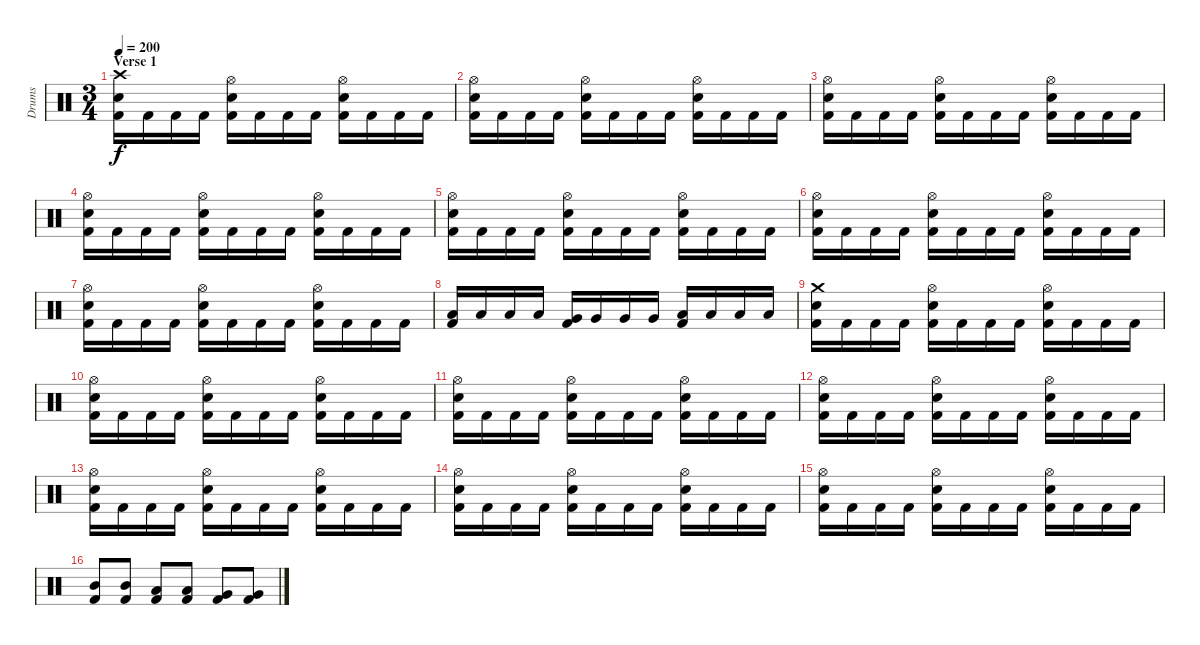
\track ("Drums" "Drums") {instrument percussion}
\staff {score}
\articulation defaults
\ts (3 4)
\section ("" "Verse 1")
\tempo 200
\clef neutral
\ks c
("Crash high (hit)" "Snare (hit) 2" "Kick (hit) 2").16{dy f} "Kick (hit) 2".16 "Kick (hit) 2".16 "Kick (hit) 2".16 ("Hi-Hat (open)" "Snare (hit) 2" "Kick (hit) 2").16 "Kick (hit) 2".16 "Kick (hit) 2".16 "Kick (hit) 2".16 ("Hi-Hat (open)" "Snare (hit) 2" "Kick (hit) 2").16 "Kick (hit) 2".16 "Kick (hit) 2".16 "Kick (hit) 2".16 |
("Hi-Hat (open)" "Snare (hit) 2" "Kick (hit) 2").16 "Kick (hit) 2".16 "Kick (hit) 2".16 "Kick (hit) 2".16 ("Hi-Hat (open)" "Snare (hit) 2" "Kick (hit) 2").16 "Kick (hit) 2".16 "Kick (hit) 2".16 "Kick (hit) 2".16 ("Hi-Hat (open)" "Snare (hit) 2" "Kick (hit) 2").16 "Kick (hit) 2".16 "Kick (hit) 2".16 "Kick (hit) 2".16 |
("Hi-Hat (open)" "Snare (hit) 2" "Kick (hit) 2").16 "Kick (hit) 2".16 "Kick (hit) 2".16 "Kick (hit) 2".16 ("Hi-Hat (open)" "Snare (hit) 2" "Kick (hit) 2").16 "Kick (hit) 2".16 "Kick (hit) 2".16 "Kick (hit) 2".16 ("Hi-Hat (open)" "Snare (hit) 2" "Kick (hit) 2").16 "Kick (hit) 2".16 "Kick (hit) 2".16 "Kick (hit) 2".16 |
("Hi-Hat (open)" "Snare (hit) 2" "Kick (hit) 2").16 "Kick (hit) 2".16 "Kick (hit) 2".16 "Kick (hit) 2".16 ("Hi-Hat (open)" "Snare (hit) 2" "Kick (hit) 2").16 "Kick (hit) 2".16 "Kick (hit) 2".16 "Kick (hit) 2".16 ("Hi-Hat (open)" "Snare (hit) 2" "Kick (hit) 2").16 "Kick (hit) 2".16 "Kick (hit) 2".16 "Kick (hit) 2".16 |
("Hi-Hat (open)" "Snare (hit) 2" "Kick (hit) 2").16 "Kick (hit) 2".16 "Kick (hit) 2".16 "Kick (hit) 2".16 ("Hi-Hat (open)" "Snare (hit) 2" "Kick (hit) 2").16 "Kick (hit) 2".16 "Kick (hit) 2".16 "Kick (hit) 2".16 ("Hi-Hat (open)" "Snare (hit) 2" "Kick (hit) 2").16 "Kick (hit) 2".16 "Kick (hit) 2".16 "Kick (hit) 2".16 |
("Hi-Hat (open)" "Snare (hit) 2" "Kick (hit) 2").16 "Kick (hit) 2".16 "Kick (hit) 2".16 "Kick (hit) 2".16 ("Hi-Hat (open)" "Snare (hit) 2" "Kick (hit) 2").16 "Kick (hit) 2".16 "Kick (hit) 2".16 "Kick (hit) 2".16 ("Hi-Hat (open)" "Snare (hit) 2" "Kick (hit) 2").16 "Kick (hit) 2".16 "Kick (hit) 2".16 "Kick (hit) 2".16 |
("Hi-Hat (open)" "Snare (hit) 2" "Kick (hit) 2").16 "Kick (hit) 2".16 "Kick (hit) 2".16 "Kick (hit) 2".16 ("Hi-Hat (open)" "Snare (hit) 2" "Kick (hit) 2").16 "Kick (hit) 2".16 "Kick (hit) 2".16 "Kick (hit) 2".16 ("Hi-Hat (open)" "Snare (hit) 2" "Kick (hit) 2").16 "Kick (hit) 2".16 "Kick (hit) 2".16 "Kick (hit) 2".16 |
("Low Tom (hit)" "Kick (hit) 2").16 "Low Tom (hit)".16 "Low Tom (hit)".16 "Low Tom (hit)".16 ("Very Low Tom (hit)" "Kick (hit) 2").16 "Very Low Tom (hit)".16 "Very Low Tom (hit)".16 "Very Low Tom (hit)".16 ("Low Floor Tom (hit)" "Kick (hit) 2").16 "Low Floor Tom (hit)".16 "Low Floor Tom (hit)".16 "Low Floor Tom (hit)".16 |
("Crash medium (hit)" "Snare (hit) 2" "Kick (hit) 2").16 "Kick (hit) 2".16 "Kick (hit) 2".16 "Kick (hit) 2".16 ("Hi-Hat (open)" "Snare (hit) 2" "Kick (hit) 2").16 "Kick (hit) 2".16 "Kick (hit) 2".16 "Kick (hit) 2".16 ("Hi-Hat (open)" "Snare (hit) 2" "Kick (hit) 2").16 "Kick (hit) 2".16 "Kick (hit) 2".16 "Kick (hit) 2".16 |
("Hi-Hat (open)" "Snare (hit) 2" "Kick (hit) 2").16 "Kick (hit) 2".16 "Kick (hit) 2".16 "Kick (hit) 2".16 ("Hi-Hat (open)" "Snare (hit) 2" "Kick (hit) 2").16 "Kick (hit) 2".16 "Kick (hit) 2".16 "Kick (hit) 2".16 ("Hi-Hat (open)" "Snare (hit) 2" "Kick (hit) 2").16 "Kick (hit) 2".16 "Kick (hit) 2".16 "Kick (hit) 2".16 |
("Hi-Hat (open)" "Snare (hit) 2" "Kick (hit) 2").16 "Kick (hit) 2".16 "Kick (hit) 2".16 "Kick (hit) 2".16 ("Hi-Hat (open)" "Snare (hit) 2" "Kick (hit) 2").16 "Kick (hit) 2".16 "Kick (hit) 2".16 "Kick (hit) 2".16 ("Hi-Hat (open)" "Snare (hit) 2" "Kick (hit) 2").16 "Kick (hit) 2".16 "Kick (hit) 2".16 "Kick (hit) 2".16 |
("Hi-Hat (open)" "Snare (hit) 2" "Kick (hit) 2").16 "Kick (hit) 2".16 "Kick (hit) 2".16 "Kick (hit) 2".16 ("Hi-Hat (open)" "Snare (hit) 2" "Kick (hit) 2").16 "Kick (hit) 2".16 "Kick (hit) 2".16 "Kick (hit) 2".16 ("Hi-Hat (open)" "Snare (hit) 2" "Kick (hit) 2").16 "Kick (hit) 2".16 "Kick (hit) 2".16 "Kick (hit) 2".16 |
("Hi-Hat (open)" "Snare (hit) 2" "Kick (hit) 2").16 "Kick (hit) 2".16 "Kick (hit) 2".16 "Kick (hit) 2".16 ("Hi-Hat (open)" "Snare (hit) 2" "Kick (hit) 2").16 "Kick (hit) 2".16 "Kick (hit) 2".16 "Kick (hit) 2".16 ("Hi-Hat (open)" "Snare (hit) 2" "Kick (hit) 2").16 "Kick (hit) 2".16 "Kick (hit) 2".16 "Kick (hit) 2".16 |
("Hi-Hat (open)" "Snare (hit) 2" "Kick (hit) 2").16 "Kick (hit) 2".16 "Kick (hit) 2".16 "Kick (hit) 2".16 ("Hi-Hat (open)" "Snare (hit) 2" "Kick (hit) 2").16 "Kick (hit) 2".16 "Kick (hit) 2".16 "Kick (hit) 2".16 ("Hi-Hat (open)" "Snare (hit) 2" "Kick (hit) 2").16 "Kick (hit) 2".16 "Kick (hit) 2".16 "Kick (hit) 2".16 |
("Hi-Hat (open)" "Snare (hit) 2" "Kick (hit) 2").16 "Kick (hit) 2".16 "Kick (hit) 2".16 "Kick (hit) 2".16 ("Hi-Hat (open)" "Snare (hit) 2" "Kick (hit) 2").16 "Kick (hit) 2".16 "Kick (hit) 2".16 "Kick (hit) 2".16 ("Hi-Hat (open)" "Snare (hit) 2" "Kick (hit) 2").16 "Kick (hit) 2".16 "Kick (hit) 2".16 "Kick (hit) 2".16 |
("Mid Tom (hit)" "Kick (hit) 2").8 ("Mid Tom (hit)" "Kick (hit) 2").8 ("Low Tom (hit)" "Kick (hit) 2").8 ("Low Tom (hit)" "Kick (hit) 2").8 ("Very Low Tom (hit)" "Kick (hit) 2").8 ("Very Low Tom (hit)" "Kick (hit) 2").8
